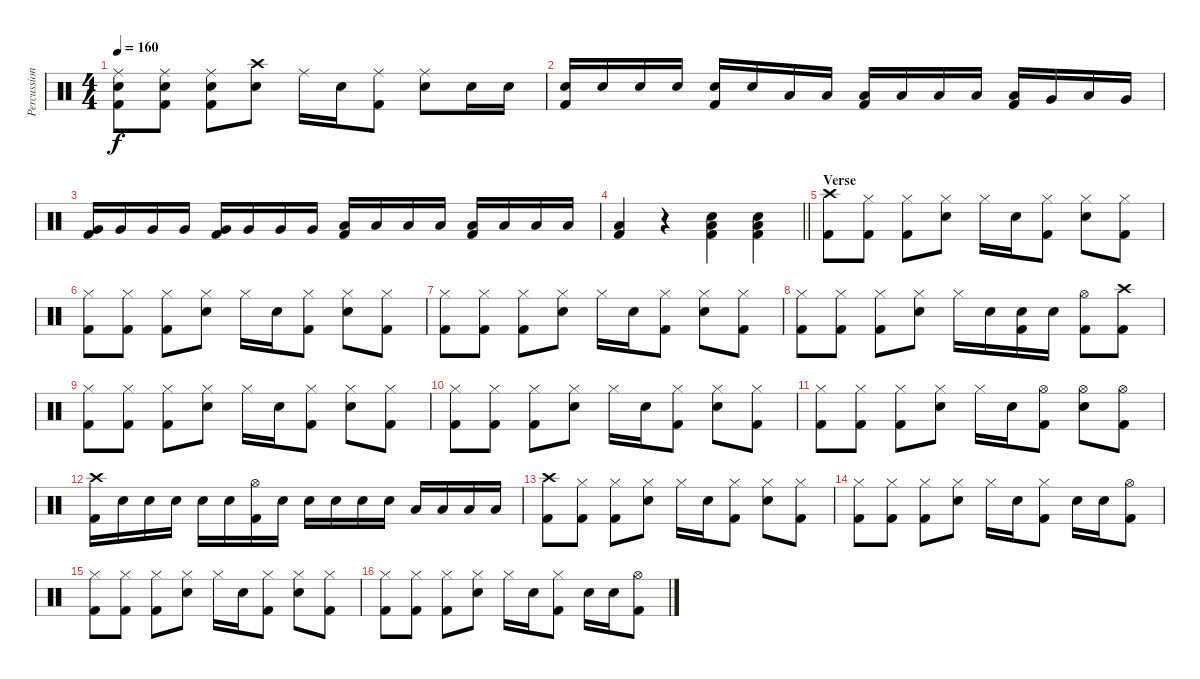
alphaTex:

\track ("Percussion" "Percussion") {instrument percussion}
\staff {score}
\articulation defaults
\ts (4 4)
\tempo 160
\clef neutral
\ks c
("Ride (middle)" "Electric Snare (hit)" "Kick (hit) 2").8{dy f} ("Ride (middle)" "Electric Snare (hit)" "Kick (hit) 2").8 ("Ride (middle)" "Electric Snare (hit)" "Kick (hit) 2").8 ("Crash high (hit)" "Electric Snare (hit)").8 "Ride (middle)".16 "Electric Snare (hit)".16 ("Ride (middle)" "Kick (hit) 2").8 ("Ride (middle)" "Electric Snare (hit)").8 "Electric Snare (hit)".16 "Electric Snare (hit)".16 |
("Electric Snare (hit)" "Kick (hit) 2").16 "Electric Snare (hit)".16 "Electric Snare (hit)".16 "Electric Snare (hit)".16 ("Electric Snare (hit)" "Kick (hit) 2").16 "Electric Snare (hit)".16 "Low Tom (hit)".16 "Low Tom (hit)".16 ("Low Tom (hit)" "Kick (hit) 2").16 "Low Tom (hit)".16 "Low Tom (hit)".16 "Low Tom (hit)".16 ("Low Tom (hit)" "Kick (hit) 2").16 "Very Low Tom (hit)".16 "Low Tom (hit)".16 "Very Low Tom (hit)".16 |
("Very Low Tom (hit)" "Kick (hit) 2").16 "Very Low Tom (hit)".16 "Very Low Tom (hit)".16 "Very Low Tom (hit)".16 ("Very Low Tom (hit)" "Kick (hit) 2").16 "Very Low Tom (hit)".16 "Very Low Tom (hit)".16 "Very Low Tom (hit)".16 ("Low Floor Tom (hit)" "Kick (hit) 2").16 "Low Floor Tom (hit)".16 "Low Floor Tom (hit)".16 "Low Floor Tom (hit)".16 ("Low Floor Tom (hit)" "Kick (hit) 2").16 "Low Floor Tom (hit)".16 "Low Floor Tom (hit)".16 "Low Floor Tom (hit)".16 |
\barLineRight lightlight
("Low Floor Tom (hit)" "Kick (hit) 2").4 r.4 ("Low Floor Tom (hit)" "Electric Snare (hit)" "Kick (hit) 2").4 ("Low Floor Tom (hit)" "Electric Snare (hit)" "Kick (hit) 2").4 |
\section ("" "Verse")
("Crash high (hit)" "Kick (hit) 2").8 ("Hi-Hat (closed)" "Kick (hit) 2").8 ("Hi-Hat (closed)" "Kick (hit) 2").8 ("Hi-Hat (closed)" "Electric Snare (hit)").8 "Hi-Hat (closed)".16 "Electric Snare (hit)".16 ("Hi-Hat (closed)" "Kick (hit) 2").8 ("Hi-Hat (closed)" "Electric Snare (hit)").8 ("Hi-Hat (closed)" "Kick (hit) 2").8 |
("Hi-Hat (closed)" "Kick (hit) 2").8 ("Hi-Hat (closed)" "Kick (hit) 2").8 ("Hi-Hat (closed)" "Kick (hit) 2").8 ("Hi-Hat (closed)" "Electric Snare (hit)").8 "Hi-Hat (closed)".16 "Electric Snare (hit)".16 ("Hi-Hat (closed)" "Kick (hit) 2").8 ("Hi-Hat (closed)" "Electric Snare (hit)").8 ("Hi-Hat (closed)" "Kick (hit) 2").8 |
("Hi-Hat (closed)" "Kick (hit) 2").8 ("Hi-Hat (closed)" "Kick (hit) 2").8 ("Hi-Hat (closed)" "Kick (hit) 2").8 ("Hi-Hat (closed)" "Electric Snare (hit)").8 "Hi-Hat (closed)".16 "Electric Snare (hit)".16 ("Hi-Hat (closed)" "Kick (hit) 2").8 ("Hi-Hat (closed)" "Electric Snare (hit)").8 ("Hi-Hat (closed)" "Kick (hit) 2").8 |
("Hi-Hat (closed)" "Kick (hit) 2").8 ("Hi-Hat (closed)" "Kick (hit) 2").8 ("Hi-Hat (closed)" "Kick (hit) 2").8 ("Hi-Hat (closed)" "Electric Snare (hit)").8 "Hi-Hat (closed)".16 "Electric Snare (hit)".16 ("Electric Snare (hit)" "Kick (hit) 2").16 "Electric Snare (hit)".16 ("Hi-Hat (open)" "Kick (hit) 2").8 ("Crash high (hit)" "Kick (hit) 2").8 |
("Hi-Hat (closed)" "Kick (hit) 2").8 ("Hi-Hat (closed)" "Kick (hit) 2").8 ("Hi-Hat (closed)" "Kick (hit) 2").8 ("Hi-Hat (closed)" "Electric Snare (hit)").8 "Hi-Hat (closed)".16 "Electric Snare (hit)".16 ("Hi-Hat (closed)" "Kick (hit) 2").8 ("Hi-Hat (closed)" "Electric Snare (hit)").8 ("Hi-Hat (closed)" "Kick (hit) 2").8 |
("Hi-Hat (closed)" "Kick (hit) 2").8 ("Hi-Hat (closed)" "Kick (hit) 2").8 ("Hi-Hat (closed)" "Kick (hit) 2").8 ("Hi-Hat (closed)" "Electric Snare (hit)").8 "Hi-Hat (closed)".16 "Electric Snare (hit)".16 ("Hi-Hat (closed)" "Kick (hit) 2").8 ("Hi-Hat (closed)" "Electric Snare (hit)").8 ("Hi-Hat (closed)" "Kick (hit) 2").8 |
("Hi-Hat (closed)" "Kick (hit) 2").8 ("Hi-Hat (closed)" "Kick (hit) 2").8 ("Hi-Hat (closed)" "Kick (hit) 2").8 ("Hi-Hat (closed)" "Electric Snare (hit)").8 "Hi-Hat (closed)".16 "Electric Snare (hit)".16 ("Hi-Hat (open)" "Kick (hit) 2").8 ("Hi-Hat (open)" "Electric Snare (hit)").8 ("Hi-Hat (open)" "Kick (hit) 2").8 |
("Crash high (hit)" "Kick (hit) 2").16 "Electric Snare (hit)".16 "Electric Snare (hit)".16 "Electric Snare (hit)".16 "Electric Snare (hit)".16 "Electric Snare (hit)".16 ("Hi-Hat (open)" "Kick (hit) 2").16 "Electric Snare (hit)".16 "Electric Snare (hit)".16 "Electric Snare (hit)".16 "Electric Snare (hit)".16 "Electric Snare (hit)".16 "Low Tom (hit)".16 "Low Tom (hit)".16 "Low Tom (hit)".16 "Low Tom (hit)".16 |
("Crash high (hit)" "Kick (hit) 2").8 ("Hi-Hat (closed)" "Kick (hit) 2").8 ("Hi-Hat (closed)" "Kick (hit) 2").8 ("Hi-Hat (closed)" "Electric Snare (hit)").8 "Hi-Hat (closed)".16 "Electric Snare (hit)".16 ("Hi-Hat (closed)" "Kick (hit) 2").8 ("Hi-Hat (closed)" "Electric Snare (hit)").8 ("Hi-Hat (closed)" "Kick (hit) 2").8 |
("Hi-Hat (closed)" "Kick (hit) 2").8 ("Hi-Hat (closed)" "Kick (hit) 2").8 ("Hi-Hat (closed)" "Kick (hit) 2").8 ("Hi-Hat (closed)" "Electric Snare (hit)").8 "Hi-Hat (closed)".16 "Electric Snare (hit)".16 ("Hi-Hat (closed)" "Kick (hit) 2").8 "Electric Snare (hit)".16 "Electric Snare (hit)".16 ("Hi-Hat (open)" "Kick (hit) 2").8 |
("Hi-Hat (closed)" "Kick (hit) 2").8 ("Hi-Hat (closed)" "Kick (hit) 2").8 ("Hi-Hat (closed)" "Kick (hit) 2").8 ("Hi-Hat (closed)" "Electric Snare (hit)").8 "Hi-Hat (closed)".16 "Electric Snare (hit)".16 ("Hi-Hat (closed)" "Kick (hit) 2").8 ("Hi-Hat (closed)" "Electric Snare (hit)").8 ("Hi-Hat (closed)" "Kick (hit) 2").8 |
("Hi-Hat (closed)" "Kick (hit) 2").8 ("Hi-Hat (closed)" "Kick (hit) 2").8 ("Hi-Hat (closed)" "Kick (hit) 2").8 ("Hi-Hat (closed)" "Electric Snare (hit)").8 "Hi-Hat (closed)".16 "Electric Snare (hit)".16 ("Hi-Hat (closed)" "Kick (hit) 2").8 "Electric Snare (hit)".16 "Electric Snare (hit)".16 ("Hi-Hat (open)" "Kick (hit) 2").8
